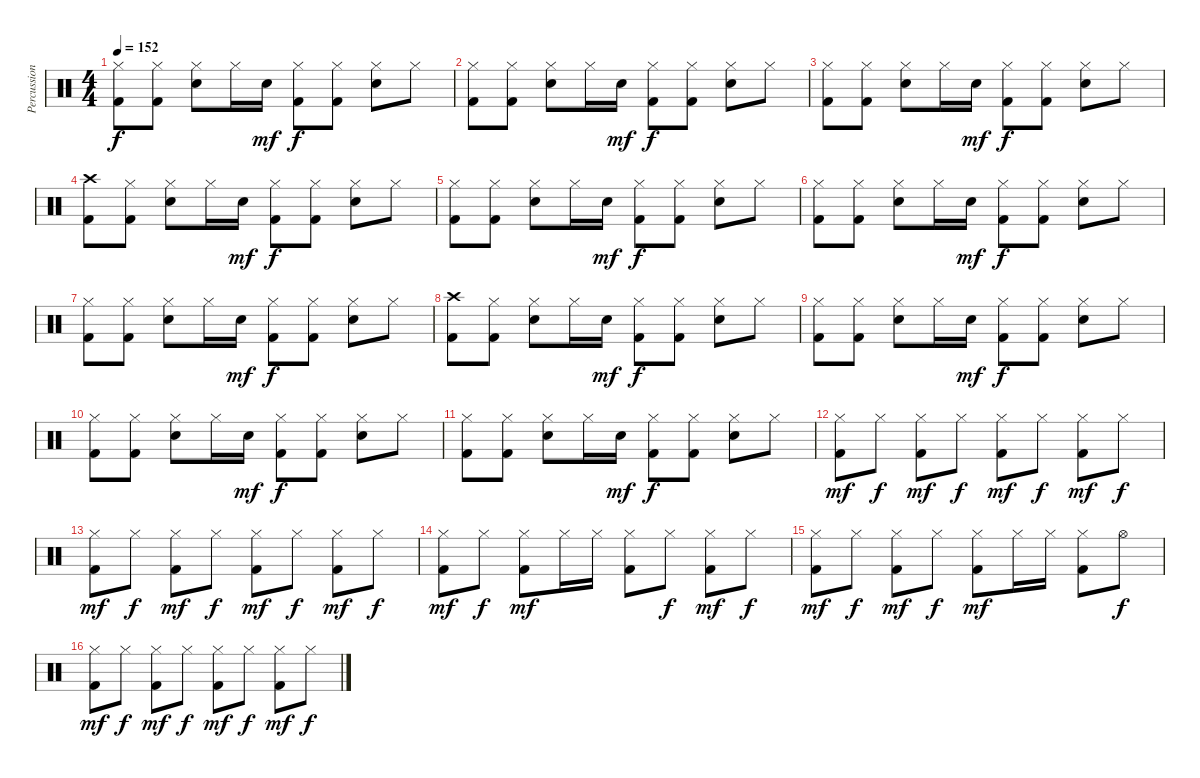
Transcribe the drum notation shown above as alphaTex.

\track ("Percussion" "Percussion") {instrument percussion}
\staff {score}
\articulation defaults
\ts (4 4)
\tempo 152
\clef neutral
\ks c
("Kick (hit) 2" "Hi-Hat (closed)").8{dy f} ("Kick (hit) 2" "Hi-Hat (closed)").8 ("Electric Snare (hit)" "Hi-Hat (closed)").8 "Hi-Hat (closed)".16 "Electric Snare (hit)".16{dy mf} ("Kick (hit) 2" "Hi-Hat (closed)").8{dy f} ("Kick (hit) 2" "Hi-Hat (closed)").8 ("Electric Snare (hit)" "Hi-Hat (closed)").8 "Hi-Hat (closed)".8 |
("Kick (hit) 2" "Hi-Hat (closed)").8 ("Kick (hit) 2" "Hi-Hat (closed)").8 ("Electric Snare (hit)" "Hi-Hat (closed)").8 "Hi-Hat (closed)".16 "Electric Snare (hit)".16{dy mf} ("Kick (hit) 2" "Hi-Hat (closed)").8{dy f} ("Kick (hit) 2" "Hi-Hat (closed)").8 ("Electric Snare (hit)" "Hi-Hat (closed)").8 "Hi-Hat (closed)".8 |
("Kick (hit) 2" "Hi-Hat (closed)").8 ("Kick (hit) 2" "Hi-Hat (closed)").8 ("Electric Snare (hit)" "Hi-Hat (closed)").8 "Hi-Hat (closed)".16 "Electric Snare (hit)".16{dy mf} ("Kick (hit) 2" "Hi-Hat (closed)").8{dy f} ("Kick (hit) 2" "Hi-Hat (closed)").8 ("Electric Snare (hit)" "Hi-Hat (closed)").8 "Hi-Hat (closed)".8 |
("Kick (hit) 2" "Crash high (hit)").8 ("Kick (hit) 2" "Hi-Hat (closed)").8 ("Electric Snare (hit)" "Hi-Hat (closed)").8 "Hi-Hat (closed)".16 "Electric Snare (hit)".16{dy mf} ("Kick (hit) 2" "Hi-Hat (closed)").8{dy f} ("Kick (hit) 2" "Hi-Hat (closed)").8 ("Electric Snare (hit)" "Hi-Hat (closed)").8 "Hi-Hat (closed)".8 |
("Kick (hit) 2" "Hi-Hat (closed)").8 ("Kick (hit) 2" "Hi-Hat (closed)").8 ("Electric Snare (hit)" "Hi-Hat (closed)").8 "Hi-Hat (closed)".16 "Electric Snare (hit)".16{dy mf} ("Kick (hit) 2" "Hi-Hat (closed)").8{dy f} ("Kick (hit) 2" "Hi-Hat (closed)").8 ("Electric Snare (hit)" "Hi-Hat (closed)").8 "Hi-Hat (closed)".8 |
("Kick (hit) 2" "Hi-Hat (closed)").8 ("Kick (hit) 2" "Hi-Hat (closed)").8 ("Electric Snare (hit)" "Hi-Hat (closed)").8 "Hi-Hat (closed)".16 "Electric Snare (hit)".16{dy mf} ("Kick (hit) 2" "Hi-Hat (closed)").8{dy f} ("Kick (hit) 2" "Hi-Hat (closed)").8 ("Electric Snare (hit)" "Hi-Hat (closed)").8 "Hi-Hat (closed)".8 |
("Kick (hit) 2" "Hi-Hat (closed)").8 ("Kick (hit) 2" "Hi-Hat (closed)").8 ("Electric Snare (hit)" "Hi-Hat (closed)").8 "Hi-Hat (closed)".16 "Electric Snare (hit)".16{dy mf} ("Kick (hit) 2" "Hi-Hat (closed)").8{dy f} ("Kick (hit) 2" "Hi-Hat (closed)").8 ("Electric Snare (hit)" "Hi-Hat (closed)").8 "Hi-Hat (closed)".8 |
("Kick (hit) 2" "Crash high (hit)").8 ("Kick (hit) 2" "Hi-Hat (closed)").8 ("Electric Snare (hit)" "Hi-Hat (closed)").8 "Hi-Hat (closed)".16 "Electric Snare (hit)".16{dy mf} ("Kick (hit) 2" "Hi-Hat (closed)").8{dy f} ("Kick (hit) 2" "Hi-Hat (closed)").8 ("Electric Snare (hit)" "Hi-Hat (closed)").8 "Hi-Hat (closed)".8 |
("Kick (hit) 2" "Hi-Hat (closed)").8 ("Kick (hit) 2" "Hi-Hat (closed)").8 ("Electric Snare (hit)" "Hi-Hat (closed)").8 "Hi-Hat (closed)".16 "Electric Snare (hit)".16{dy mf} ("Kick (hit) 2" "Hi-Hat (closed)").8{dy f} ("Kick (hit) 2" "Hi-Hat (closed)").8 ("Electric Snare (hit)" "Hi-Hat (closed)").8 "Hi-Hat (closed)".8 |
("Kick (hit) 2" "Hi-Hat (closed)").8 ("Kick (hit) 2" "Hi-Hat (closed)").8 ("Electric Snare (hit)" "Hi-Hat (closed)").8 "Hi-Hat (closed)".16 "Electric Snare (hit)".16{dy mf} ("Kick (hit) 2" "Hi-Hat (closed)").8{dy f} ("Kick (hit) 2" "Hi-Hat (closed)").8 ("Electric Snare (hit)" "Hi-Hat (closed)").8 "Hi-Hat (closed)".8 |
("Kick (hit) 2" "Hi-Hat (closed)").8 ("Kick (hit) 2" "Hi-Hat (closed)").8 ("Electric Snare (hit)" "Hi-Hat (closed)").8 "Hi-Hat (closed)".16 "Electric Snare (hit)".16{dy mf} ("Kick (hit) 2" "Hi-Hat (closed)").8{dy f} ("Kick (hit) 2" "Hi-Hat (closed)").8 ("Electric Snare (hit)" "Hi-Hat (closed)").8 "Hi-Hat (closed)".8 |
("Kick (hit) 2" "Hi-Hat (closed)").8{dy mf} "Hi-Hat (closed)".8{dy f} ("Kick (hit) 2" "Hi-Hat (closed)").8{dy mf} "Hi-Hat (closed)".8{dy f} ("Kick (hit) 2" "Hi-Hat (closed)").8{dy mf} "Hi-Hat (closed)".8{dy f} ("Kick (hit) 2" "Hi-Hat (closed)").8{dy mf} "Hi-Hat (closed)".8{dy f} |
("Kick (hit) 2" "Hi-Hat (closed)").8{dy mf} "Hi-Hat (closed)".8{dy f} ("Kick (hit) 2" "Hi-Hat (closed)").8{dy mf} "Hi-Hat (closed)".8{dy f} ("Kick (hit) 2" "Hi-Hat (closed)").8{dy mf} "Hi-Hat (closed)".8{dy f} ("Kick (hit) 2" "Hi-Hat (closed)").8{dy mf} "Hi-Hat (closed)".8{dy f} |
("Kick (hit) 2" "Hi-Hat (closed)").8{dy mf} "Hi-Hat (closed)".8{dy f} ("Kick (hit) 2" "Hi-Hat (closed)").8{dy mf} "Hi-Hat (closed)".16 "Hi-Hat (closed)".16 ("Kick (hit) 2" "Hi-Hat (closed)").8 "Hi-Hat (closed)".8{dy f} ("Kick (hit) 2" "Hi-Hat (closed)").8{dy mf} "Hi-Hat (closed)".8{dy f} |
("Kick (hit) 2" "Hi-Hat (closed)").8{dy mf} "Hi-Hat (closed)".8{dy f} ("Kick (hit) 2" "Hi-Hat (closed)").8{dy mf} "Hi-Hat (closed)".8{dy f} ("Kick (hit) 2" "Hi-Hat (closed)").8{dy mf} "Hi-Hat (closed)".16 "Hi-Hat (closed)".16 ("Kick (hit) 2" "Hi-Hat (closed)").8 "Hi-Hat (open)".8{dy f} |
("Kick (hit) 2" "Hi-Hat (closed)").8{dy mf} "Hi-Hat (closed)".8{dy f} ("Kick (hit) 2" "Hi-Hat (closed)").8{dy mf} "Hi-Hat (closed)".8{dy f} ("Kick (hit) 2" "Hi-Hat (closed)").8{dy mf} "Hi-Hat (closed)".8{dy f} ("Kick (hit) 2" "Hi-Hat (closed)").8{dy mf} "Hi-Hat (closed)".8{dy f}
